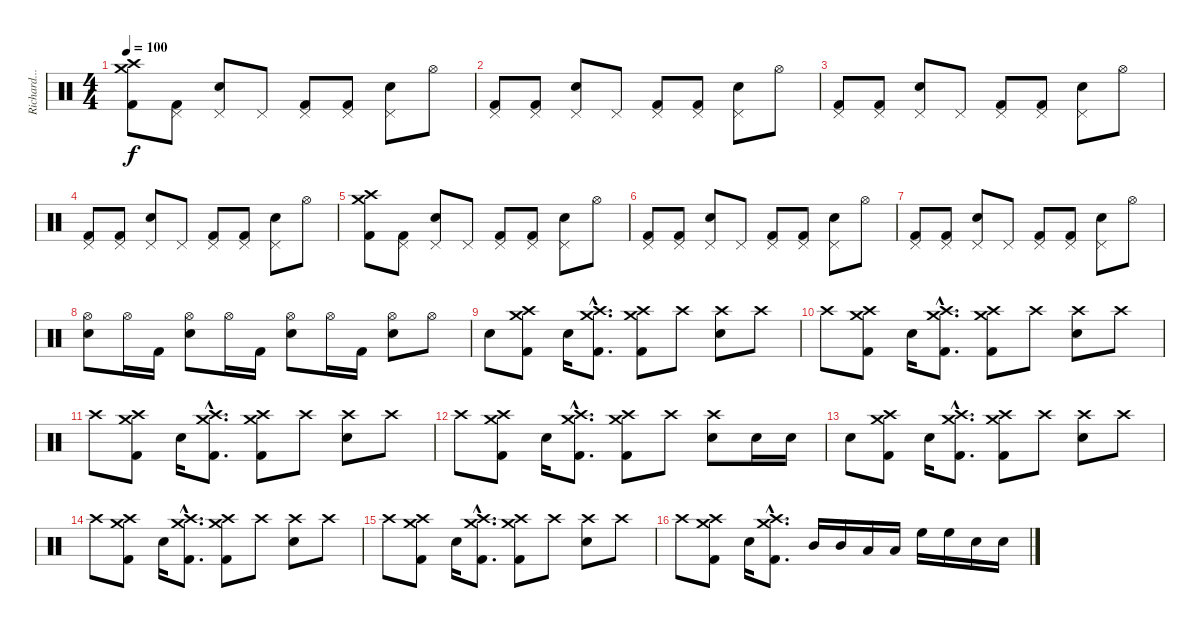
\track ("Richard...clon..." "Richard...") {instrument percussion}
\staff {score}
\articulation defaults
\ts (4 4)
\tempo 100
\clef neutral
\ks c
("Crash medium (hit)" "Crash high (hit)" "Kick (hit) 2").8{dy f} ("Pedal Hi-Hat (hit)" "Kick (hit) 2").8 ("Pedal Hi-Hat (hit)" "Snare (hit) 2").8 "Pedal Hi-Hat (hit)".8 ("Pedal Hi-Hat (hit)" "Kick (hit) 2").8 ("Pedal Hi-Hat (hit)" "Kick (hit) 2").8 ("Pedal Hi-Hat (hit)" "Snare (hit) 2").8 "Hi-Hat (open)".8 |
("Pedal Hi-Hat (hit)" "Kick (hit) 2").8 ("Pedal Hi-Hat (hit)" "Kick (hit) 2").8 ("Pedal Hi-Hat (hit)" "Snare (hit) 2").8 "Pedal Hi-Hat (hit)".8 ("Pedal Hi-Hat (hit)" "Kick (hit) 2").8 ("Pedal Hi-Hat (hit)" "Kick (hit) 2").8 ("Pedal Hi-Hat (hit)" "Snare (hit) 2").8 "Hi-Hat (open)".8 |
("Pedal Hi-Hat (hit)" "Kick (hit) 2").8 ("Pedal Hi-Hat (hit)" "Kick (hit) 2").8 ("Pedal Hi-Hat (hit)" "Snare (hit) 2").8 "Pedal Hi-Hat (hit)".8 ("Pedal Hi-Hat (hit)" "Kick (hit) 2").8 ("Pedal Hi-Hat (hit)" "Kick (hit) 2").8 ("Pedal Hi-Hat (hit)" "Snare (hit) 2").8 "Hi-Hat (open)".8 |
("Pedal Hi-Hat (hit)" "Kick (hit) 2").8 ("Pedal Hi-Hat (hit)" "Kick (hit) 2").8 ("Pedal Hi-Hat (hit)" "Snare (hit) 2").8 "Pedal Hi-Hat (hit)".8 ("Pedal Hi-Hat (hit)" "Kick (hit) 2").8 ("Pedal Hi-Hat (hit)" "Kick (hit) 2").8 ("Pedal Hi-Hat (hit)" "Snare (hit) 2").8 "Hi-Hat (open)".8 |
("Crash medium (hit)" "Crash high (hit)" "Kick (hit) 2").8 ("Pedal Hi-Hat (hit)" "Kick (hit) 2").8 ("Pedal Hi-Hat (hit)" "Snare (hit) 2").8 "Pedal Hi-Hat (hit)".8 ("Pedal Hi-Hat (hit)" "Kick (hit) 2").8 ("Pedal Hi-Hat (hit)" "Kick (hit) 2").8 ("Pedal Hi-Hat (hit)" "Snare (hit) 2").8 "Hi-Hat (open)".8 |
("Pedal Hi-Hat (hit)" "Kick (hit) 2").8 ("Pedal Hi-Hat (hit)" "Kick (hit) 2").8 ("Pedal Hi-Hat (hit)" "Snare (hit) 2").8 "Pedal Hi-Hat (hit)".8 ("Pedal Hi-Hat (hit)" "Kick (hit) 2").8 ("Pedal Hi-Hat (hit)" "Kick (hit) 2").8 ("Pedal Hi-Hat (hit)" "Snare (hit) 2").8 "Hi-Hat (open)".8 |
("Pedal Hi-Hat (hit)" "Kick (hit) 2").8 ("Pedal Hi-Hat (hit)" "Kick (hit) 2").8 ("Pedal Hi-Hat (hit)" "Snare (hit) 2").8 "Pedal Hi-Hat (hit)".8 ("Pedal Hi-Hat (hit)" "Kick (hit) 2").8 ("Pedal Hi-Hat (hit)" "Kick (hit) 2").8 ("Pedal Hi-Hat (hit)" "Snare (hit) 2").8 "Hi-Hat (open)".8 |
("Hi-Hat (open)" "Snare (hit) 2").8 "Hi-Hat (open)".16 "Kick (hit) 2".16 ("Hi-Hat (open)" "Snare (hit) 2").8 "Hi-Hat (open)".16 "Kick (hit) 2".16 ("Hi-Hat (open)" "Snare (hit) 2").8 "Hi-Hat (open)".16 "Kick (hit) 2".16 ("Hi-Hat (open)" "Snare (hit) 2").8 "Hi-Hat (open)".8 |
"Snare (hit) 2".8 ("Crash medium (hit)" "Crash high (hit)" "Kick (hit) 2").8 "Snare (hit) 2".16 ("Crash medium (hit)"{hac} "Crash high (hit)"{hac} "Kick (hit) 2"{hac}).8{d} ("Crash medium (hit)" "Crash high (hit)" "Kick (hit) 2").8 "Crash high (hit)".8 ("Crash high (hit)" "Snare (hit) 2").8 "Crash high (hit)".8 |
"Crash high (hit)".8 ("Crash medium (hit)" "Crash high (hit)" "Kick (hit) 2").8 "Snare (hit) 2".16 ("Crash medium (hit)"{hac} "Crash high (hit)"{hac} "Kick (hit) 2"{hac}).8{d} ("Crash medium (hit)" "Crash high (hit)" "Kick (hit) 2").8 "Crash high (hit)".8 ("Crash high (hit)" "Snare (hit) 2").8 "Crash high (hit)".8 |
"Crash high (hit)".8 ("Crash medium (hit)" "Crash high (hit)" "Kick (hit) 2").8 "Snare (hit) 2".16 ("Crash medium (hit)"{hac} "Crash high (hit)"{hac} "Kick (hit) 2"{hac}).8{d} ("Crash medium (hit)" "Crash high (hit)" "Kick (hit) 2").8 "Crash high (hit)".8 ("Crash high (hit)" "Snare (hit) 2").8 "Crash high (hit)".8 |
"Crash high (hit)".8 ("Crash medium (hit)" "Crash high (hit)" "Kick (hit) 2").8 "Snare (hit) 2".16 ("Crash medium (hit)"{hac} "Crash high (hit)"{hac} "Kick (hit) 2"{hac}).8{d} ("Crash medium (hit)" "Crash high (hit)" "Kick (hit) 2").8 "Crash high (hit)".8 ("Crash high (hit)" "Snare (hit) 2").8 "Snare (hit) 2".16 "Snare (hit) 2".16 |
"Snare (hit) 2".8 ("Crash medium (hit)" "Crash high (hit)" "Kick (hit) 2").8 "Snare (hit) 2".16 ("Crash medium (hit)"{hac} "Crash high (hit)"{hac} "Kick (hit) 2"{hac}).8{d} ("Crash medium (hit)" "Crash high (hit)" "Kick (hit) 2").8 "Crash high (hit)".8 ("Crash high (hit)" "Snare (hit) 2").8 "Crash high (hit)".8 |
"Crash high (hit)".8 ("Crash medium (hit)" "Crash high (hit)" "Kick (hit) 2").8 "Snare (hit) 2".16 ("Crash medium (hit)"{hac} "Crash high (hit)"{hac} "Kick (hit) 2"{hac}).8{d} ("Crash medium (hit)" "Crash high (hit)" "Kick (hit) 2").8 "Crash high (hit)".8 ("Crash high (hit)" "Snare (hit) 2").8 "Crash high (hit)".8 |
"Crash high (hit)".8 ("Crash medium (hit)" "Crash high (hit)" "Kick (hit) 2").8 "Snare (hit) 2".16 ("Crash medium (hit)"{hac} "Crash high (hit)"{hac} "Kick (hit) 2"{hac}).8{d} ("Crash medium (hit)" "Crash high (hit)" "Kick (hit) 2").8 "Crash high (hit)".8 ("Crash high (hit)" "Snare (hit) 2").8 "Crash high (hit)".8 |
"Crash high (hit)".8 ("Crash medium (hit)" "Crash high (hit)" "Kick (hit) 2").8 "Snare (hit) 2".16 ("Crash medium (hit)"{hac} "Crash high (hit)"{hac} "Kick (hit) 2"{hac}).8{d} "Mid Tom (hit)".16 "Mid Tom (hit)".16 "Low Tom (hit)".16 "Low Tom (hit)".16 "High Floor Tom (hit)".16 "High Floor Tom (hit)".16 "Snare (hit) 2".16 "Snare (hit) 2".16
